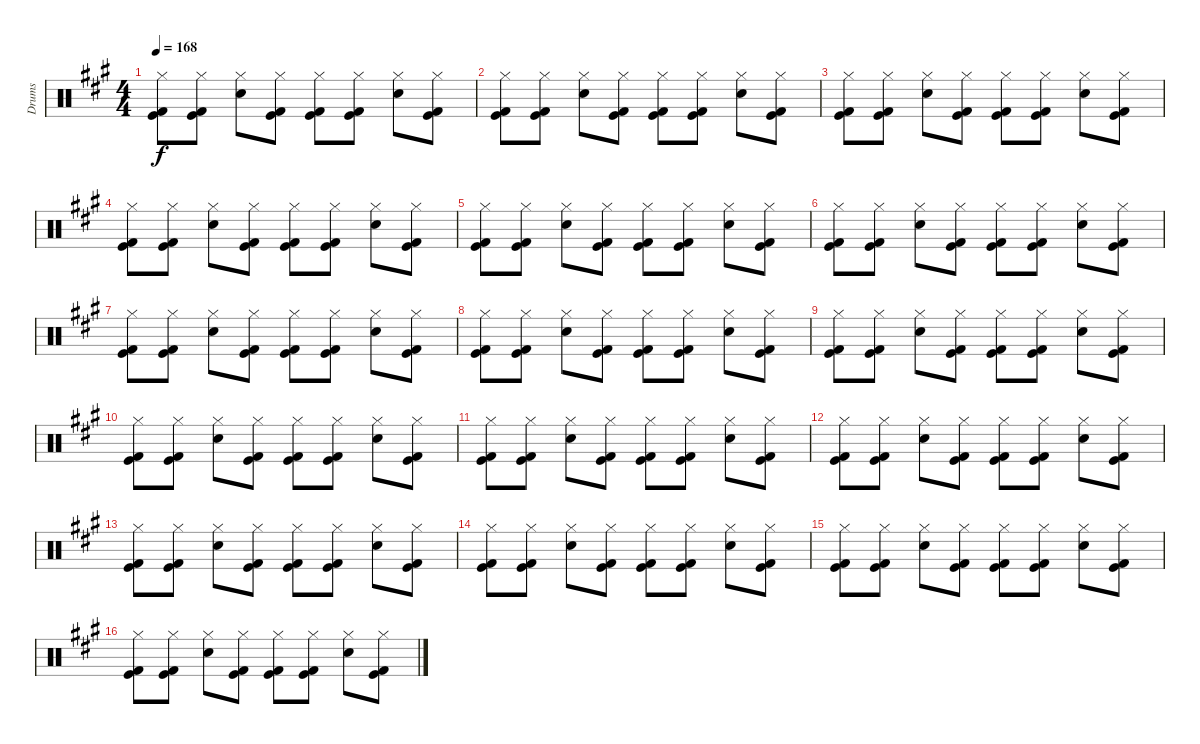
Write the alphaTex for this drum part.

\track ("Drums" "Drums") {instrument percussion}
\staff {score}
\articulation defaults
\ts (4 4)
\tempo 168
\clef neutral
\ks a
("Hi-Hat (closed)" "Kick (hit)" "Kick (hit) 2").8{dy f} ("Hi-Hat (closed)" "Kick (hit)" "Kick (hit) 2").8 ("Hi-Hat (closed)" "Snare (hit) 2").8 ("Hi-Hat (closed)" "Kick (hit)" "Kick (hit) 2").8 ("Hi-Hat (closed)" "Kick (hit)" "Kick (hit) 2").8 ("Hi-Hat (closed)" "Kick (hit)" "Kick (hit) 2").8 ("Hi-Hat (closed)" "Snare (hit) 2").8 ("Hi-Hat (closed)" "Kick (hit)" "Kick (hit) 2").8 |
("Hi-Hat (closed)" "Kick (hit)" "Kick (hit) 2").8 ("Hi-Hat (closed)" "Kick (hit)" "Kick (hit) 2").8 ("Hi-Hat (closed)" "Snare (hit) 2").8 ("Hi-Hat (closed)" "Kick (hit)" "Kick (hit) 2").8 ("Hi-Hat (closed)" "Kick (hit)" "Kick (hit) 2").8 ("Hi-Hat (closed)" "Kick (hit)" "Kick (hit) 2").8 ("Hi-Hat (closed)" "Snare (hit) 2").8 ("Hi-Hat (closed)" "Kick (hit)" "Kick (hit) 2").8 |
("Hi-Hat (closed)" "Kick (hit)" "Kick (hit) 2").8 ("Hi-Hat (closed)" "Kick (hit)" "Kick (hit) 2").8 ("Hi-Hat (closed)" "Snare (hit) 2").8 ("Hi-Hat (closed)" "Kick (hit)" "Kick (hit) 2").8 ("Hi-Hat (closed)" "Kick (hit)" "Kick (hit) 2").8 ("Hi-Hat (closed)" "Kick (hit)" "Kick (hit) 2").8 ("Hi-Hat (closed)" "Snare (hit) 2").8 ("Hi-Hat (closed)" "Kick (hit)" "Kick (hit) 2").8 |
("Hi-Hat (closed)" "Kick (hit)" "Kick (hit) 2").8 ("Hi-Hat (closed)" "Kick (hit)" "Kick (hit) 2").8 ("Hi-Hat (closed)" "Snare (hit) 2").8 ("Hi-Hat (closed)" "Kick (hit)" "Kick (hit) 2").8 ("Hi-Hat (closed)" "Kick (hit)" "Kick (hit) 2").8 ("Hi-Hat (closed)" "Kick (hit)" "Kick (hit) 2").8 ("Hi-Hat (closed)" "Snare (hit) 2").8 ("Hi-Hat (closed)" "Kick (hit)" "Kick (hit) 2").8 |
("Hi-Hat (closed)" "Kick (hit)" "Kick (hit) 2").8 ("Hi-Hat (closed)" "Kick (hit)" "Kick (hit) 2").8 ("Hi-Hat (closed)" "Snare (hit) 2").8 ("Hi-Hat (closed)" "Kick (hit)" "Kick (hit) 2").8 ("Hi-Hat (closed)" "Kick (hit)" "Kick (hit) 2").8 ("Hi-Hat (closed)" "Kick (hit)" "Kick (hit) 2").8 ("Hi-Hat (closed)" "Snare (hit) 2").8 ("Hi-Hat (closed)" "Kick (hit)" "Kick (hit) 2").8 |
("Hi-Hat (closed)" "Kick (hit)" "Kick (hit) 2").8 ("Hi-Hat (closed)" "Kick (hit)" "Kick (hit) 2").8 ("Hi-Hat (closed)" "Snare (hit) 2").8 ("Hi-Hat (closed)" "Kick (hit)" "Kick (hit) 2").8 ("Hi-Hat (closed)" "Kick (hit)" "Kick (hit) 2").8 ("Hi-Hat (closed)" "Kick (hit)" "Kick (hit) 2").8 ("Hi-Hat (closed)" "Snare (hit) 2").8 ("Hi-Hat (closed)" "Kick (hit)" "Kick (hit) 2").8 |
("Hi-Hat (closed)" "Kick (hit)" "Kick (hit) 2").8 ("Hi-Hat (closed)" "Kick (hit)" "Kick (hit) 2").8 ("Hi-Hat (closed)" "Snare (hit) 2").8 ("Hi-Hat (closed)" "Kick (hit)" "Kick (hit) 2").8 ("Hi-Hat (closed)" "Kick (hit)" "Kick (hit) 2").8 ("Hi-Hat (closed)" "Kick (hit)" "Kick (hit) 2").8 ("Hi-Hat (closed)" "Snare (hit) 2").8 ("Hi-Hat (closed)" "Kick (hit)" "Kick (hit) 2").8 |
("Hi-Hat (closed)" "Kick (hit)" "Kick (hit) 2").8 ("Hi-Hat (closed)" "Kick (hit)" "Kick (hit) 2").8 ("Hi-Hat (closed)" "Snare (hit) 2").8 ("Hi-Hat (closed)" "Kick (hit)" "Kick (hit) 2").8 ("Hi-Hat (closed)" "Kick (hit)" "Kick (hit) 2").8 ("Hi-Hat (closed)" "Kick (hit)" "Kick (hit) 2").8 ("Hi-Hat (closed)" "Snare (hit) 2").8 ("Hi-Hat (closed)" "Kick (hit)" "Kick (hit) 2").8 |
("Hi-Hat (closed)" "Kick (hit)" "Kick (hit) 2").8 ("Hi-Hat (closed)" "Kick (hit)" "Kick (hit) 2").8 ("Hi-Hat (closed)" "Snare (hit) 2").8 ("Hi-Hat (closed)" "Kick (hit)" "Kick (hit) 2").8 ("Hi-Hat (closed)" "Kick (hit)" "Kick (hit) 2").8 ("Hi-Hat (closed)" "Kick (hit)" "Kick (hit) 2").8 ("Hi-Hat (closed)" "Snare (hit) 2").8 ("Hi-Hat (closed)" "Kick (hit)" "Kick (hit) 2").8 |
("Hi-Hat (closed)" "Kick (hit)" "Kick (hit) 2").8 ("Hi-Hat (closed)" "Kick (hit)" "Kick (hit) 2").8 ("Hi-Hat (closed)" "Snare (hit) 2").8 ("Hi-Hat (closed)" "Kick (hit)" "Kick (hit) 2").8 ("Hi-Hat (closed)" "Kick (hit)" "Kick (hit) 2").8 ("Hi-Hat (closed)" "Kick (hit)" "Kick (hit) 2").8 ("Hi-Hat (closed)" "Snare (hit) 2").8 ("Hi-Hat (closed)" "Kick (hit)" "Kick (hit) 2").8 |
("Hi-Hat (closed)" "Kick (hit)" "Kick (hit) 2").8 ("Hi-Hat (closed)" "Kick (hit)" "Kick (hit) 2").8 ("Hi-Hat (closed)" "Snare (hit) 2").8 ("Hi-Hat (closed)" "Kick (hit)" "Kick (hit) 2").8 ("Hi-Hat (closed)" "Kick (hit)" "Kick (hit) 2").8 ("Hi-Hat (closed)" "Kick (hit)" "Kick (hit) 2").8 ("Hi-Hat (closed)" "Snare (hit) 2").8 ("Hi-Hat (closed)" "Kick (hit)" "Kick (hit) 2").8 |
("Hi-Hat (closed)" "Kick (hit)" "Kick (hit) 2").8 ("Hi-Hat (closed)" "Kick (hit)" "Kick (hit) 2").8 ("Hi-Hat (closed)" "Snare (hit) 2").8 ("Hi-Hat (closed)" "Kick (hit)" "Kick (hit) 2").8 ("Hi-Hat (closed)" "Kick (hit)" "Kick (hit) 2").8 ("Hi-Hat (closed)" "Kick (hit)" "Kick (hit) 2").8 ("Hi-Hat (closed)" "Snare (hit) 2").8 ("Hi-Hat (closed)" "Kick (hit)" "Kick (hit) 2").8 |
("Hi-Hat (closed)" "Kick (hit)" "Kick (hit) 2").8 ("Hi-Hat (closed)" "Kick (hit)" "Kick (hit) 2").8 ("Hi-Hat (closed)" "Snare (hit) 2").8 ("Hi-Hat (closed)" "Kick (hit)" "Kick (hit) 2").8 ("Hi-Hat (closed)" "Kick (hit)" "Kick (hit) 2").8 ("Hi-Hat (closed)" "Kick (hit)" "Kick (hit) 2").8 ("Hi-Hat (closed)" "Snare (hit) 2").8 ("Hi-Hat (closed)" "Kick (hit)" "Kick (hit) 2").8 |
("Hi-Hat (closed)" "Kick (hit)" "Kick (hit) 2").8 ("Hi-Hat (closed)" "Kick (hit)" "Kick (hit) 2").8 ("Hi-Hat (closed)" "Snare (hit) 2").8 ("Hi-Hat (closed)" "Kick (hit)" "Kick (hit) 2").8 ("Hi-Hat (closed)" "Kick (hit)" "Kick (hit) 2").8 ("Hi-Hat (closed)" "Kick (hit)" "Kick (hit) 2").8 ("Hi-Hat (closed)" "Snare (hit) 2").8 ("Hi-Hat (closed)" "Kick (hit)" "Kick (hit) 2").8 |
("Hi-Hat (closed)" "Kick (hit)" "Kick (hit) 2").8 ("Hi-Hat (closed)" "Kick (hit)" "Kick (hit) 2").8 ("Hi-Hat (closed)" "Snare (hit) 2").8 ("Hi-Hat (closed)" "Kick (hit)" "Kick (hit) 2").8 ("Hi-Hat (closed)" "Kick (hit)" "Kick (hit) 2").8 ("Hi-Hat (closed)" "Kick (hit)" "Kick (hit) 2").8 ("Hi-Hat (closed)" "Snare (hit) 2").8 ("Hi-Hat (closed)" "Kick (hit)" "Kick (hit) 2").8 |
("Hi-Hat (closed)" "Kick (hit)" "Kick (hit) 2").8 ("Hi-Hat (closed)" "Kick (hit)" "Kick (hit) 2").8 ("Hi-Hat (closed)" "Snare (hit) 2").8 ("Hi-Hat (closed)" "Kick (hit)" "Kick (hit) 2").8 ("Hi-Hat (closed)" "Kick (hit)" "Kick (hit) 2").8 ("Hi-Hat (closed)" "Kick (hit)" "Kick (hit) 2").8 ("Hi-Hat (closed)" "Snare (hit) 2").8 ("Hi-Hat (closed)" "Kick (hit)" "Kick (hit) 2").8
